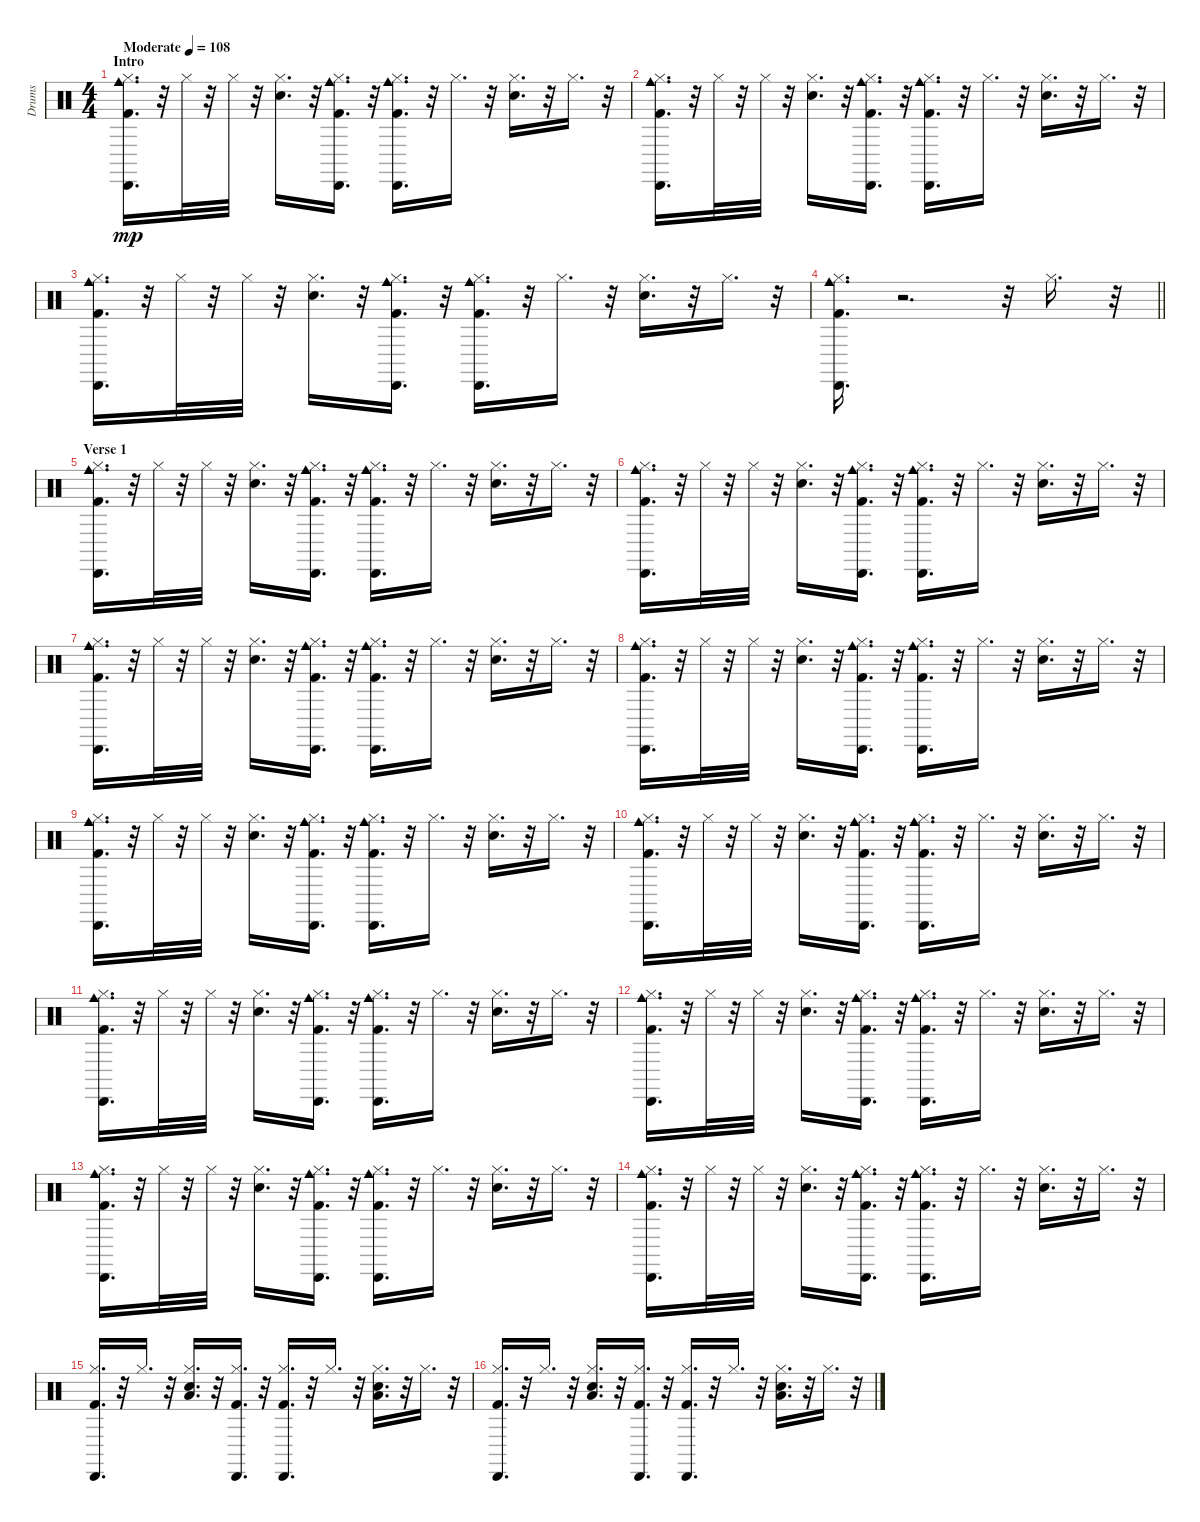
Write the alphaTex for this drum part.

\track ("Drums" "Drums") {instrument percussion}
\staff {score}
\articulation defaults
\ts (4 4)
\section ("" "Intro")
\tempo (108 "Moderate")
\clef neutral
\ks c
("Kick (hit) 2" "Hi-Hat (closed)" "Cabasa (hit)" "Cowbell medium (hit)").16{d dy mp} r.32 "Hi-Hat (closed)".32 r.32 "Hi-Hat (closed)".32 r.32 ("Snare (hit) 2" "Hi-Hat (closed)").16{d} r.32 ("Kick (hit) 2" "Hi-Hat (closed)" "Cabasa (hit)" "Cowbell medium (hit)").16{d} r.32 ("Kick (hit) 2" "Hi-Hat (closed)" "Cabasa (hit)" "Cowbell medium (hit)").16{d} r.32 "Hi-Hat (closed)".16{d} r.32 ("Snare (hit) 2" "Hi-Hat (closed)").16{d} r.32 "Hi-Hat (closed)".16{d} r.32 |
("Kick (hit) 2" "Hi-Hat (closed)" "Cabasa (hit)" "Cowbell medium (hit)").16{d} r.32 "Hi-Hat (closed)".32 r.32 "Hi-Hat (closed)".32 r.32 ("Snare (hit) 2" "Hi-Hat (closed)").16{d} r.32 ("Kick (hit) 2" "Hi-Hat (closed)" "Cabasa (hit)" "Cowbell medium (hit)").16{d} r.32 ("Kick (hit) 2" "Hi-Hat (closed)" "Cabasa (hit)" "Cowbell medium (hit)").16{d} r.32 "Hi-Hat (closed)".16{d} r.32 ("Snare (hit) 2" "Hi-Hat (closed)").16{d} r.32 "Hi-Hat (closed)".16{d} r.32 |
("Kick (hit) 2" "Hi-Hat (closed)" "Cabasa (hit)" "Cowbell medium (hit)").16{d} r.32 "Hi-Hat (closed)".32 r.32 "Hi-Hat (closed)".32 r.32 ("Snare (hit) 2" "Hi-Hat (closed)").16{d} r.32 ("Kick (hit) 2" "Hi-Hat (closed)" "Cabasa (hit)" "Cowbell medium (hit)").16{d} r.32 ("Kick (hit) 2" "Hi-Hat (closed)" "Cabasa (hit)" "Cowbell medium (hit)").16{d} r.32 "Hi-Hat (closed)".16{d} r.32 ("Snare (hit) 2" "Hi-Hat (closed)").16{d} r.32 "Hi-Hat (closed)".16{d} r.32 |
\barLineRight lightlight
("Kick (hit) 2" "Hi-Hat (closed)" "Cowbell medium (hit)" "Cabasa (hit)").16{d} r.2{d} r.32 "Hi-Hat (closed)".16{d} r.32 |
\section ("" "Verse 1")
("Kick (hit) 2" "Hi-Hat (closed)" "Cabasa (hit)" "Cowbell medium (hit)").16{d} r.32 "Hi-Hat (closed)".32 r.32 "Hi-Hat (closed)".32 r.32 ("Snare (hit) 2" "Hi-Hat (closed)").16{d} r.32 ("Kick (hit) 2" "Hi-Hat (closed)" "Cabasa (hit)" "Cowbell medium (hit)").16{d} r.32 ("Kick (hit) 2" "Hi-Hat (closed)" "Cabasa (hit)" "Cowbell medium (hit)").16{d} r.32 "Hi-Hat (closed)".16{d} r.32 ("Snare (hit) 2" "Hi-Hat (closed)").16{d} r.32 "Hi-Hat (closed)".16{d} r.32 |
("Kick (hit) 2" "Hi-Hat (closed)" "Cabasa (hit)" "Cowbell medium (hit)").16{d} r.32 "Hi-Hat (closed)".32 r.32 "Hi-Hat (closed)".32 r.32 ("Snare (hit) 2" "Hi-Hat (closed)").16{d} r.32 ("Kick (hit) 2" "Hi-Hat (closed)" "Cabasa (hit)" "Cowbell medium (hit)").16{d} r.32 ("Kick (hit) 2" "Hi-Hat (closed)" "Cabasa (hit)" "Cowbell medium (hit)").16{d} r.32 "Hi-Hat (closed)".16{d} r.32 ("Snare (hit) 2" "Hi-Hat (closed)").16{d} r.32 "Hi-Hat (closed)".16{d} r.32 |
("Kick (hit) 2" "Hi-Hat (closed)" "Cabasa (hit)" "Cowbell medium (hit)").16{d} r.32 "Hi-Hat (closed)".32 r.32 "Hi-Hat (closed)".32 r.32 ("Snare (hit) 2" "Hi-Hat (closed)").16{d} r.32 ("Kick (hit) 2" "Hi-Hat (closed)" "Cabasa (hit)" "Cowbell medium (hit)").16{d} r.32 ("Kick (hit) 2" "Hi-Hat (closed)" "Cabasa (hit)" "Cowbell medium (hit)").16{d} r.32 "Hi-Hat (closed)".16{d} r.32 ("Snare (hit) 2" "Hi-Hat (closed)").16{d} r.32 "Hi-Hat (closed)".16{d} r.32 |
("Kick (hit) 2" "Hi-Hat (closed)" "Cabasa (hit)" "Cowbell medium (hit)").16{d} r.32 "Hi-Hat (closed)".32 r.32 "Hi-Hat (closed)".32 r.32 ("Snare (hit) 2" "Hi-Hat (closed)").16{d} r.32 ("Kick (hit) 2" "Hi-Hat (closed)" "Cabasa (hit)" "Cowbell medium (hit)").16{d} r.32 ("Kick (hit) 2" "Hi-Hat (closed)" "Cabasa (hit)" "Cowbell medium (hit)").16{d} r.32 "Hi-Hat (closed)".16{d} r.32 ("Snare (hit) 2" "Hi-Hat (closed)").16{d} r.32 "Hi-Hat (closed)".16{d} r.32 |
("Kick (hit) 2" "Hi-Hat (closed)" "Cabasa (hit)" "Cowbell medium (hit)").16{d} r.32 "Hi-Hat (closed)".32 r.32 "Hi-Hat (closed)".32 r.32 ("Snare (hit) 2" "Hi-Hat (closed)").16{d} r.32 ("Kick (hit) 2" "Hi-Hat (closed)" "Cabasa (hit)" "Cowbell medium (hit)").16{d} r.32 ("Kick (hit) 2" "Hi-Hat (closed)" "Cabasa (hit)" "Cowbell medium (hit)").16{d} r.32 "Hi-Hat (closed)".16{d} r.32 ("Snare (hit) 2" "Hi-Hat (closed)").16{d} r.32 "Hi-Hat (closed)".16{d} r.32 |
("Kick (hit) 2" "Hi-Hat (closed)" "Cabasa (hit)" "Cowbell medium (hit)").16{d} r.32 "Hi-Hat (closed)".32 r.32 "Hi-Hat (closed)".32 r.32 ("Snare (hit) 2" "Hi-Hat (closed)").16{d} r.32 ("Kick (hit) 2" "Hi-Hat (closed)" "Cabasa (hit)" "Cowbell medium (hit)").16{d} r.32 ("Kick (hit) 2" "Hi-Hat (closed)" "Cabasa (hit)" "Cowbell medium (hit)").16{d} r.32 "Hi-Hat (closed)".16{d} r.32 ("Snare (hit) 2" "Hi-Hat (closed)").16{d} r.32 "Hi-Hat (closed)".16{d} r.32 |
("Kick (hit) 2" "Hi-Hat (closed)" "Cabasa (hit)" "Cowbell medium (hit)").16{d} r.32 "Hi-Hat (closed)".32 r.32 "Hi-Hat (closed)".32 r.32 ("Snare (hit) 2" "Hi-Hat (closed)").16{d} r.32 ("Kick (hit) 2" "Hi-Hat (closed)" "Cabasa (hit)" "Cowbell medium (hit)").16{d} r.32 ("Kick (hit) 2" "Hi-Hat (closed)" "Cabasa (hit)" "Cowbell medium (hit)").16{d} r.32 "Hi-Hat (closed)".16{d} r.32 ("Snare (hit) 2" "Hi-Hat (closed)").16{d} r.32 "Hi-Hat (closed)".16{d} r.32 |
("Kick (hit) 2" "Hi-Hat (closed)" "Cabasa (hit)" "Cowbell medium (hit)").16{d} r.32 "Hi-Hat (closed)".32 r.32 "Hi-Hat (closed)".32 r.32 ("Snare (hit) 2" "Hi-Hat (closed)").16{d} r.32 ("Kick (hit) 2" "Hi-Hat (closed)" "Cabasa (hit)" "Cowbell medium (hit)").16{d} r.32 ("Kick (hit) 2" "Hi-Hat (closed)" "Cabasa (hit)" "Cowbell medium (hit)").16{d} r.32 "Hi-Hat (closed)".16{d} r.32 ("Snare (hit) 2" "Hi-Hat (closed)").16{d} r.32 "Hi-Hat (closed)".16{d} r.32 |
("Kick (hit) 2" "Hi-Hat (closed)" "Cabasa (hit)" "Cowbell medium (hit)").16{d} r.32 "Hi-Hat (closed)".32 r.32 "Hi-Hat (closed)".32 r.32 ("Snare (hit) 2" "Hi-Hat (closed)").16{d} r.32 ("Kick (hit) 2" "Hi-Hat (closed)" "Cabasa (hit)" "Cowbell medium (hit)").16{d} r.32 ("Kick (hit) 2" "Hi-Hat (closed)" "Cabasa (hit)" "Cowbell medium (hit)").16{d} r.32 "Hi-Hat (closed)".16{d} r.32 ("Snare (hit) 2" "Hi-Hat (closed)").16{d} r.32 "Hi-Hat (closed)".16{d} r.32 |
("Kick (hit) 2" "Hi-Hat (closed)" "Cabasa (hit)" "Cowbell medium (hit)").16{d} r.32 "Hi-Hat (closed)".32 r.32 "Hi-Hat (closed)".32 r.32 ("Snare (hit) 2" "Hi-Hat (closed)").16{d} r.32 ("Kick (hit) 2" "Hi-Hat (closed)" "Cabasa (hit)" "Cowbell medium (hit)").16{d} r.32 ("Kick (hit) 2" "Hi-Hat (closed)" "Cabasa (hit)" "Cowbell medium (hit)").16{d} r.32 "Hi-Hat (closed)".16{d} r.32 ("Snare (hit) 2" "Hi-Hat (closed)").16{d} r.32 "Hi-Hat (closed)".16{d} r.32 |
("Hi-Hat (closed)" "Kick (hit) 2" "Cabasa (hit)").16{d} r.32 "Hi-Hat (closed)".16{d} r.32 ("Hi-Hat (closed)" "Snare (hit) 2" "Low Tom (hit)").16{d} r.32 ("Hi-Hat (closed)" "Kick (hit) 2" "Cabasa (hit)").16{d} r.32 ("Hi-Hat (closed)" "Kick (hit) 2" "Cabasa (hit)").16{d} r.32 "Hi-Hat (closed)".16{d} r.32 ("Hi-Hat (closed)" "Snare (hit) 2" "Low Tom (hit)").16{d} r.32 "Hi-Hat (closed)".16{d} r.32 |
("Hi-Hat (closed)" "Kick (hit) 2" "Cabasa (hit)").16{d} r.32 "Hi-Hat (closed)".16{d} r.32 ("Hi-Hat (closed)" "Snare (hit) 2" "Low Tom (hit)").16{d} r.32 ("Hi-Hat (closed)" "Kick (hit) 2" "Cabasa (hit)").16{d} r.32 ("Hi-Hat (closed)" "Kick (hit) 2" "Cabasa (hit)").16{d} r.32 "Hi-Hat (closed)".16{d} r.32 ("Hi-Hat (closed)" "Snare (hit) 2" "Low Tom (hit)").16{d} r.32 "Hi-Hat (closed)".16{d} r.32
